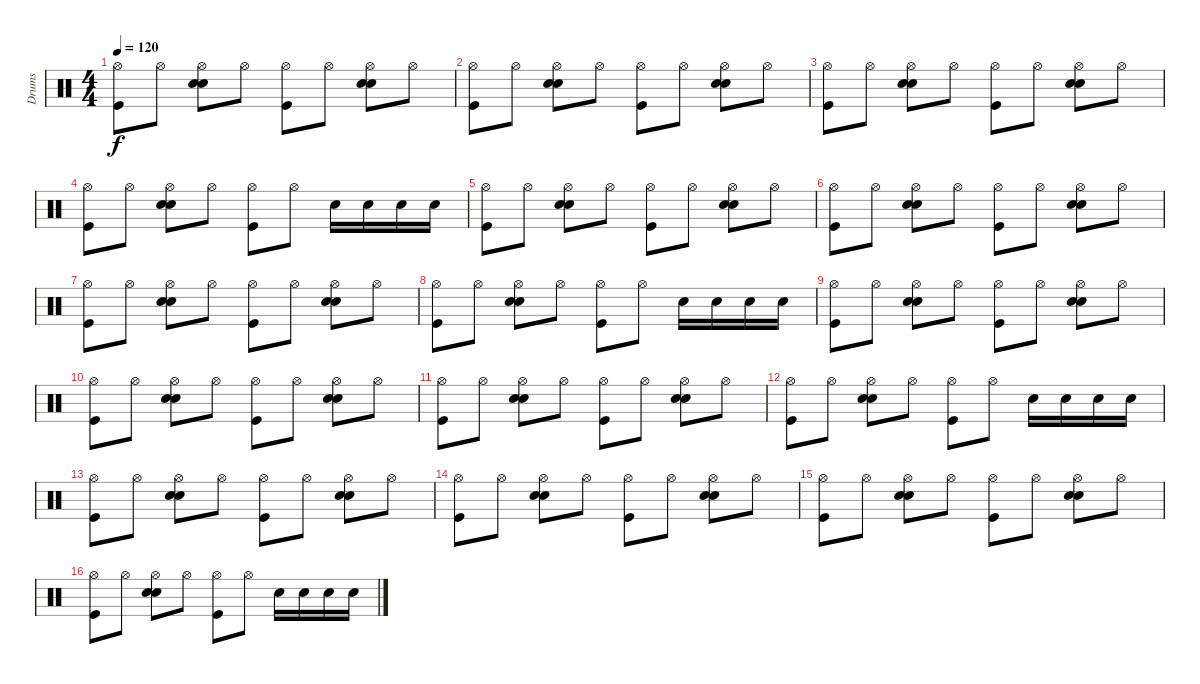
\track ("Drums" "Drums") {instrument percussion}
\staff {score}
\articulation defaults
\ts (4 4)
\tempo 120
\clef neutral
\ks c
("Hi-Hat (open)" "Kick (hit)").8{dy f} "Hi-Hat (open)".8 ("Hi-Hat (open)" "Electric Snare (hit)" "Snare (hit) 2").8 "Hi-Hat (open)".8 ("Hi-Hat (open)" "Kick (hit)").8 "Hi-Hat (open)".8 ("Hi-Hat (open)" "Electric Snare (hit)" "Snare (hit) 2").8 "Hi-Hat (open)".8 |
("Hi-Hat (open)" "Kick (hit)").8 "Hi-Hat (open)".8 ("Hi-Hat (open)" "Electric Snare (hit)" "Snare (hit) 2").8 "Hi-Hat (open)".8 ("Hi-Hat (open)" "Kick (hit)").8 "Hi-Hat (open)".8 ("Hi-Hat (open)" "Electric Snare (hit)" "Snare (hit) 2").8 "Hi-Hat (open)".8 |
("Hi-Hat (open)" "Kick (hit)").8 "Hi-Hat (open)".8 ("Hi-Hat (open)" "Electric Snare (hit)" "Snare (hit) 2").8 "Hi-Hat (open)".8 ("Hi-Hat (open)" "Kick (hit)").8 "Hi-Hat (open)".8 ("Hi-Hat (open)" "Electric Snare (hit)" "Snare (hit) 2").8 "Hi-Hat (open)".8 |
("Hi-Hat (open)" "Kick (hit)").8 "Hi-Hat (open)".8 ("Hi-Hat (open)" "Electric Snare (hit)" "Snare (hit) 2").8 "Hi-Hat (open)".8 ("Hi-Hat (open)" "Kick (hit)").8 "Hi-Hat (open)".8 "Snare (hit) 2".16 "Snare (hit) 2".16 "Snare (hit) 2".16 "Snare (hit) 2".16 |
("Hi-Hat (open)" "Kick (hit)").8 "Hi-Hat (open)".8 ("Hi-Hat (open)" "Electric Snare (hit)" "Snare (hit) 2").8 "Hi-Hat (open)".8 ("Hi-Hat (open)" "Kick (hit)").8 "Hi-Hat (open)".8 ("Hi-Hat (open)" "Electric Snare (hit)" "Snare (hit) 2").8 "Hi-Hat (open)".8 |
("Hi-Hat (open)" "Kick (hit)").8 "Hi-Hat (open)".8 ("Hi-Hat (open)" "Electric Snare (hit)" "Snare (hit) 2").8 "Hi-Hat (open)".8 ("Hi-Hat (open)" "Kick (hit)").8 "Hi-Hat (open)".8 ("Hi-Hat (open)" "Electric Snare (hit)" "Snare (hit) 2").8 "Hi-Hat (open)".8 |
("Hi-Hat (open)" "Kick (hit)").8 "Hi-Hat (open)".8 ("Hi-Hat (open)" "Electric Snare (hit)" "Snare (hit) 2").8 "Hi-Hat (open)".8 ("Hi-Hat (open)" "Kick (hit)").8 "Hi-Hat (open)".8 ("Hi-Hat (open)" "Electric Snare (hit)" "Snare (hit) 2").8 "Hi-Hat (open)".8 |
("Hi-Hat (open)" "Kick (hit)").8 "Hi-Hat (open)".8 ("Hi-Hat (open)" "Electric Snare (hit)" "Snare (hit) 2").8 "Hi-Hat (open)".8 ("Hi-Hat (open)" "Kick (hit)").8 "Hi-Hat (open)".8 "Snare (hit) 2".16 "Snare (hit) 2".16 "Snare (hit) 2".16 "Snare (hit) 2".16 |
("Hi-Hat (open)" "Kick (hit)").8 "Hi-Hat (open)".8 ("Hi-Hat (open)" "Electric Snare (hit)" "Snare (hit) 2").8 "Hi-Hat (open)".8 ("Hi-Hat (open)" "Kick (hit)").8 "Hi-Hat (open)".8 ("Hi-Hat (open)" "Electric Snare (hit)" "Snare (hit) 2").8 "Hi-Hat (open)".8 |
("Hi-Hat (open)" "Kick (hit)").8 "Hi-Hat (open)".8 ("Hi-Hat (open)" "Electric Snare (hit)" "Snare (hit) 2").8 "Hi-Hat (open)".8 ("Hi-Hat (open)" "Kick (hit)").8 "Hi-Hat (open)".8 ("Hi-Hat (open)" "Electric Snare (hit)" "Snare (hit) 2").8 "Hi-Hat (open)".8 |
("Hi-Hat (open)" "Kick (hit)").8 "Hi-Hat (open)".8 ("Hi-Hat (open)" "Electric Snare (hit)" "Snare (hit) 2").8 "Hi-Hat (open)".8 ("Hi-Hat (open)" "Kick (hit)").8 "Hi-Hat (open)".8 ("Hi-Hat (open)" "Electric Snare (hit)" "Snare (hit) 2").8 "Hi-Hat (open)".8 |
("Hi-Hat (open)" "Kick (hit)").8 "Hi-Hat (open)".8 ("Hi-Hat (open)" "Electric Snare (hit)" "Snare (hit) 2").8 "Hi-Hat (open)".8 ("Hi-Hat (open)" "Kick (hit)").8 "Hi-Hat (open)".8 "Snare (hit) 2".16 "Snare (hit) 2".16 "Snare (hit) 2".16 "Snare (hit) 2".16 |
("Hi-Hat (open)" "Kick (hit)").8 "Hi-Hat (open)".8 ("Hi-Hat (open)" "Electric Snare (hit)" "Snare (hit) 2").8 "Hi-Hat (open)".8 ("Hi-Hat (open)" "Kick (hit)").8 "Hi-Hat (open)".8 ("Hi-Hat (open)" "Electric Snare (hit)" "Snare (hit) 2").8 "Hi-Hat (open)".8 |
("Hi-Hat (open)" "Kick (hit)").8 "Hi-Hat (open)".8 ("Hi-Hat (open)" "Electric Snare (hit)" "Snare (hit) 2").8 "Hi-Hat (open)".8 ("Hi-Hat (open)" "Kick (hit)").8 "Hi-Hat (open)".8 ("Hi-Hat (open)" "Electric Snare (hit)" "Snare (hit) 2").8 "Hi-Hat (open)".8 |
("Hi-Hat (open)" "Kick (hit)").8 "Hi-Hat (open)".8 ("Hi-Hat (open)" "Electric Snare (hit)" "Snare (hit) 2").8 "Hi-Hat (open)".8 ("Hi-Hat (open)" "Kick (hit)").8 "Hi-Hat (open)".8 ("Hi-Hat (open)" "Electric Snare (hit)" "Snare (hit) 2").8 "Hi-Hat (open)".8 |
("Hi-Hat (open)" "Kick (hit)").8 "Hi-Hat (open)".8 ("Hi-Hat (open)" "Electric Snare (hit)" "Snare (hit) 2").8 "Hi-Hat (open)".8 ("Hi-Hat (open)" "Kick (hit)").8 "Hi-Hat (open)".8 "Snare (hit) 2".16 "Snare (hit) 2".16 "Snare (hit) 2".16 "Snare (hit) 2".16
